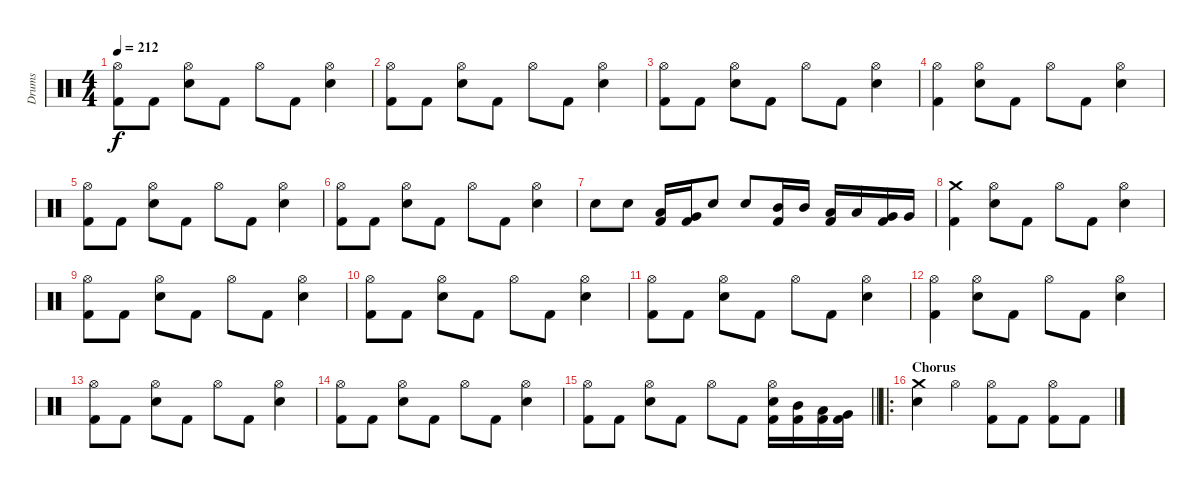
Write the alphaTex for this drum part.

\track ("Drums" "Drums") {instrument percussion}
\staff {score}
\articulation defaults
\ts (4 4)
\tempo 212
\clef neutral
\ks c
("Hi-Hat (open)" "Kick (hit) 2").8{dy f} "Kick (hit) 2".8 ("Hi-Hat (open)" "Electric Snare (hit)").8 "Kick (hit) 2".8 "Hi-Hat (open)".8 "Kick (hit) 2".8 ("Hi-Hat (open)" "Electric Snare (hit)").4 |
("Hi-Hat (open)" "Kick (hit) 2").8 "Kick (hit) 2".8 ("Hi-Hat (open)" "Electric Snare (hit)").8 "Kick (hit) 2".8 "Hi-Hat (open)".8 "Kick (hit) 2".8 ("Hi-Hat (open)" "Electric Snare (hit)").4 |
("Hi-Hat (open)" "Kick (hit) 2").8 "Kick (hit) 2".8 ("Hi-Hat (open)" "Electric Snare (hit)").8 "Kick (hit) 2".8 "Hi-Hat (open)".8 "Kick (hit) 2".8 ("Hi-Hat (open)" "Electric Snare (hit)").4 |
("Hi-Hat (open)" "Kick (hit) 2").4 ("Hi-Hat (open)" "Electric Snare (hit)").8 "Kick (hit) 2".8 "Hi-Hat (open)".8 "Kick (hit) 2".8 ("Hi-Hat (open)" "Electric Snare (hit)").4 |
("Hi-Hat (open)" "Kick (hit) 2").8 "Kick (hit) 2".8 ("Hi-Hat (open)" "Electric Snare (hit)").8 "Kick (hit) 2".8 "Hi-Hat (open)".8 "Kick (hit) 2".8 ("Hi-Hat (open)" "Electric Snare (hit)").4 |
("Hi-Hat (open)" "Kick (hit) 2").8 "Kick (hit) 2".8 ("Hi-Hat (open)" "Electric Snare (hit)").8 "Kick (hit) 2".8 "Hi-Hat (open)".8 "Kick (hit) 2".8 ("Hi-Hat (open)" "Electric Snare (hit)").4 |
"Electric Snare (hit)".8 "Electric Snare (hit)".8 ("Low Tom (hit)" "Kick (hit) 2").16 ("Very Low Tom (hit)" "Kick (hit) 2").16 "Electric Snare (hit)".8 "Electric Snare (hit)".8 ("Mid Tom (hit)" "Kick (hit) 2").16 "Mid Tom (hit)".16 ("Low Tom (hit)" "Kick (hit) 2").16 "Low Tom (hit)".16 ("Very Low Tom (hit)" "Kick (hit) 2").16 "Very Low Tom (hit)".16 |
("Crash medium (hit)" "Kick (hit) 2").4 ("Hi-Hat (open)" "Electric Snare (hit)").8 "Kick (hit) 2".8 "Hi-Hat (open)".8 "Kick (hit) 2".8 ("Hi-Hat (open)" "Electric Snare (hit)").4 |
("Hi-Hat (open)" "Kick (hit) 2").8 "Kick (hit) 2".8 ("Hi-Hat (open)" "Electric Snare (hit)").8 "Kick (hit) 2".8 "Hi-Hat (open)".8 "Kick (hit) 2".8 ("Hi-Hat (open)" "Electric Snare (hit)").4 |
("Hi-Hat (open)" "Kick (hit) 2").8 "Kick (hit) 2".8 ("Hi-Hat (open)" "Electric Snare (hit)").8 "Kick (hit) 2".8 "Hi-Hat (open)".8 "Kick (hit) 2".8 ("Hi-Hat (open)" "Electric Snare (hit)").4 |
("Hi-Hat (open)" "Kick (hit) 2").8 "Kick (hit) 2".8 ("Hi-Hat (open)" "Electric Snare (hit)").8 "Kick (hit) 2".8 "Hi-Hat (open)".8 "Kick (hit) 2".8 ("Hi-Hat (open)" "Electric Snare (hit)").4 |
("Hi-Hat (open)" "Kick (hit) 2").4 ("Hi-Hat (open)" "Electric Snare (hit)").8 "Kick (hit) 2".8 "Hi-Hat (open)".8 "Kick (hit) 2".8 ("Hi-Hat (open)" "Electric Snare (hit)").4 |
("Hi-Hat (open)" "Kick (hit) 2").8 "Kick (hit) 2".8 ("Hi-Hat (open)" "Electric Snare (hit)").8 "Kick (hit) 2".8 "Hi-Hat (open)".8 "Kick (hit) 2".8 ("Hi-Hat (open)" "Electric Snare (hit)").4 |
("Hi-Hat (open)" "Kick (hit) 2").8 "Kick (hit) 2".8 ("Hi-Hat (open)" "Electric Snare (hit)").8 "Kick (hit) 2".8 "Hi-Hat (open)".8 "Kick (hit) 2".8 ("Hi-Hat (open)" "Electric Snare (hit)").4 |
\barLineRight lightlight
("Hi-Hat (open)" "Kick (hit) 2").8 "Kick (hit) 2".8 ("Hi-Hat (open)" "Electric Snare (hit)").8 "Kick (hit) 2".8 "Hi-Hat (open)".8 "Kick (hit) 2".8 ("Hi-Hat (open)" "Electric Snare (hit)" "Kick (hit) 2").16 ("Mid Tom (hit)" "Kick (hit) 2").16 ("Low Tom (hit)" "Kick (hit) 2").16 ("Very Low Tom (hit)" "Kick (hit) 2").16 |
\ro
\section ("" "Chorus")
("Crash medium (hit)" "Electric Snare (hit)").4 "Hi-Hat (open)".4 ("Hi-Hat (open)" "Kick (hit) 2").8 "Kick (hit) 2".8 ("Hi-Hat (open)" "Kick (hit) 2").8 "Kick (hit) 2".8
